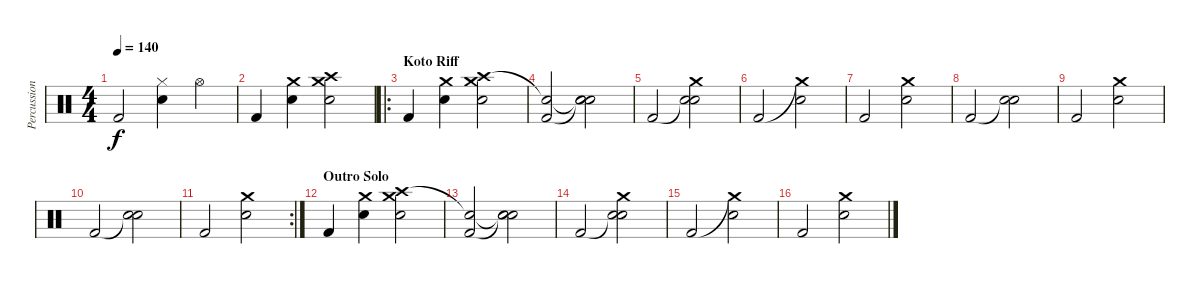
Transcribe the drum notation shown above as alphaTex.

\track ("Percussion" "Percussion") {instrument percussion}
\staff {score}
\articulation defaults
\ts (4 4)
\tempo 140
\clef neutral
\ks c "Kick (hit) 2".2{dy f}
("Hi-Hat (closed)" "Snare (hit) 2").4 "Hi-Hat (open)".4 |
"Kick (hit) 2".4 ("Crash medium (hit)" "Snare (hit) 2").4 ("Crash high (hit)" "Crash medium (hit)" "Snare (hit) 2").2 |
\ro
\section ("" "Koto Riff")
"Kick (hit) 2".4 ("Crash medium (hit)" "Snare (hit) 2").4 ("Crash high (hit)" "Crash medium (hit)" "Snare (hit) 2").2 |
("Snare (hit)"{t} "Kick (hit) 2").2 ("Snare (hit)"{t} "Snare (hit)"{t} "Snare (hit) 2").2 |
"Kick (hit) 2".2 ("Snare (hit)"{t} "Crash medium (hit)" "Snare (hit) 2").2 |
"Kick (hit) 2".2 ("Crash medium (hit)"{t} "Snare (hit) 2").2 |
"Kick (hit) 2".2 ("Crash medium (hit)" "Snare (hit) 2").2 |
"Kick (hit) 2".2 ("Snare (hit)"{t} "Snare (hit) 2").2 |
"Kick (hit) 2".2 ("Crash medium (hit)" "Snare (hit) 2").2 |
"Kick (hit) 2".2 ("Snare (hit)"{t} "Snare (hit) 2").2 |
\rc 2 "Kick (hit) 2".2
("Crash medium (hit)" "Snare (hit) 2").2 |
\section ("" "Outro Solo")
"Kick (hit) 2".4 ("Crash medium (hit)" "Snare (hit) 2").4 ("Crash high (hit)" "Crash medium (hit)" "Snare (hit) 2").2 |
("Snare (hit)"{t} "Kick (hit) 2").2 ("Snare (hit)"{t} "Snare (hit)"{t} "Snare (hit) 2").2 |
"Kick (hit) 2".2 ("Snare (hit)"{t} "Crash medium (hit)" "Snare (hit) 2").2 |
"Kick (hit) 2".2 ("Crash medium (hit)"{t} "Snare (hit) 2").2 |
"Kick (hit) 2".2 ("Crash medium (hit)" "Snare (hit) 2").2
